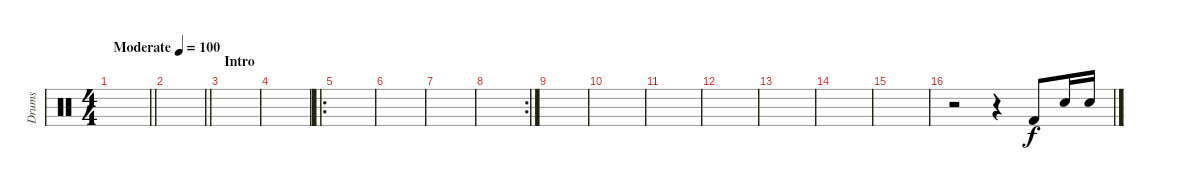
\track ("Drums" "Drums") {instrument percussion}
\staff {score}
\articulation defaults
\ts (4 4)
\tempo (100 "Moderate")
\clef neutral
\barLineRight lightlight
\ks c
|
\section ("" "")
\barLineRight lightlight
|
\section ("" "Intro")
|
|
\ro
|
|
|
\rc 2
|
|
|
|
|
|
|
|
r.2 r.4 "Kick (hit) 2".8 "Electric Snare (hit)".16 "Electric Snare (hit)".16
